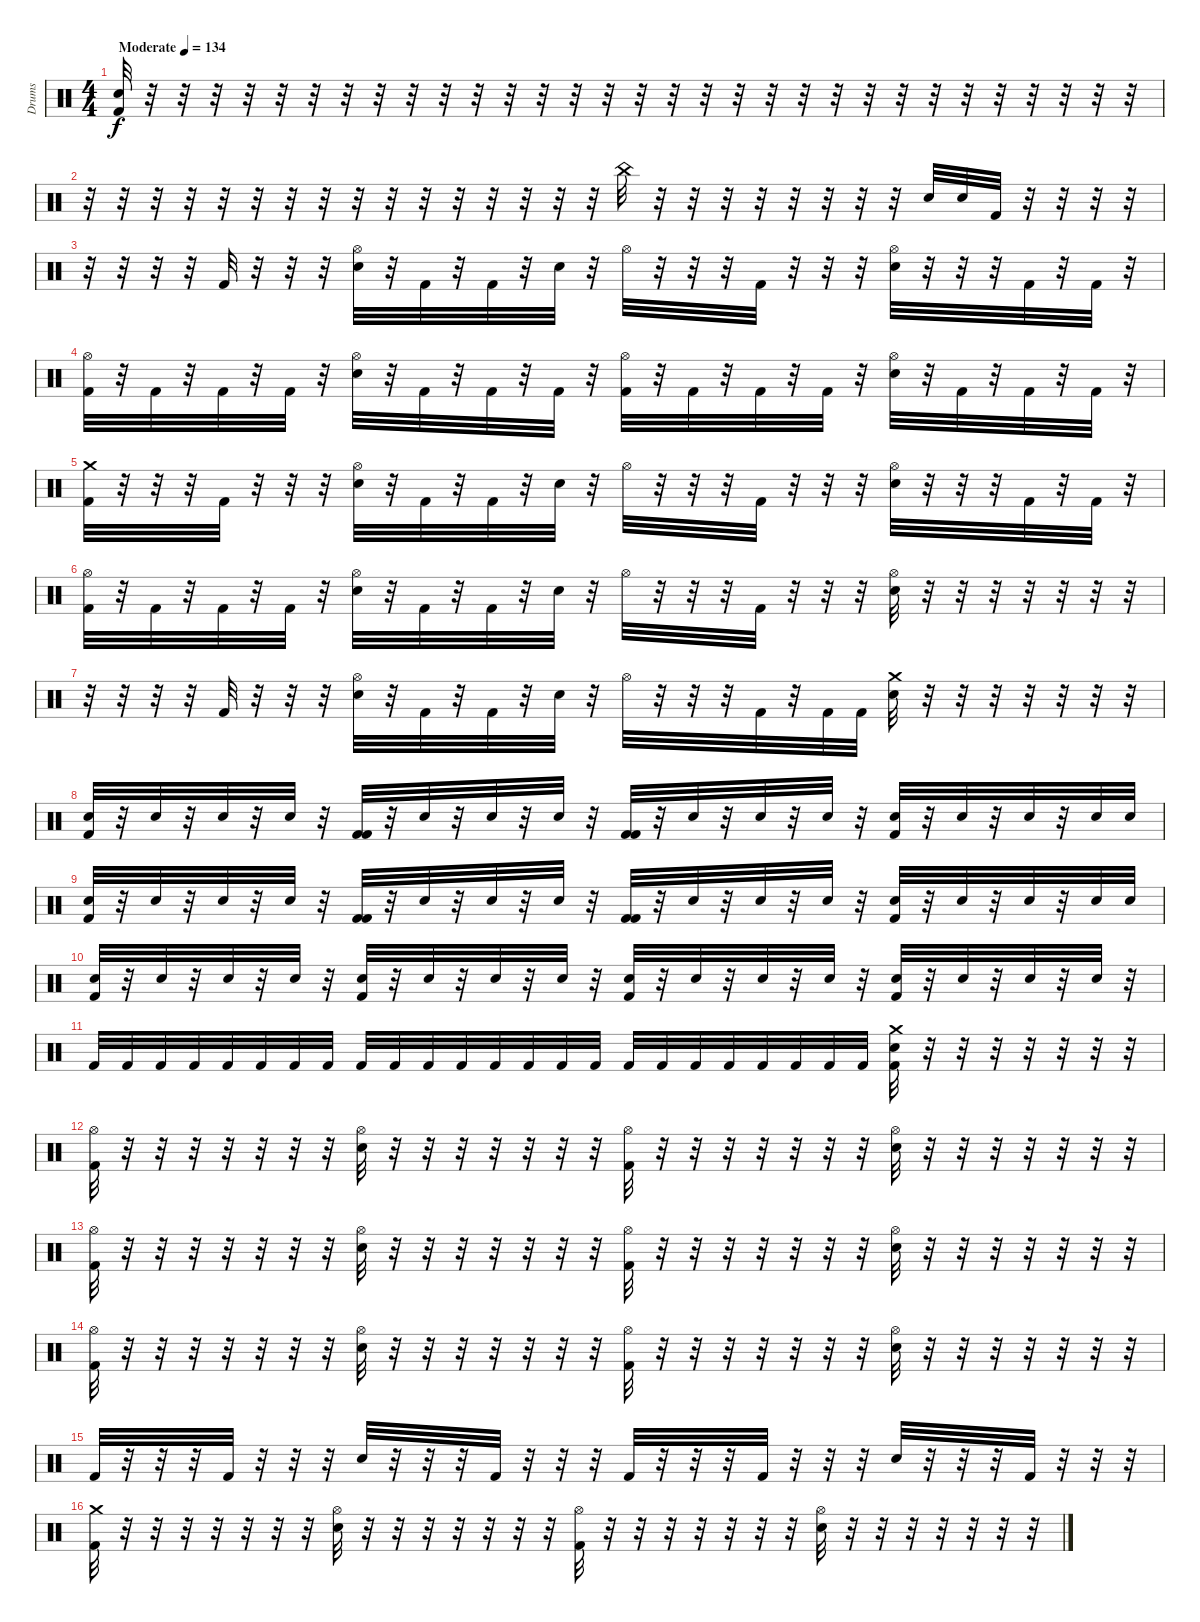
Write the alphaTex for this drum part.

\track ("Drums" "Drums") {instrument percussion}
\staff {score}
\articulation defaults
\ts (4 4)
\tempo (134 "Moderate")
\clef neutral
\ks c
("Kick (hit) 2" "Electric Snare (hit)").32{dy f} r.32 r.32 r.32 r.32 r.32 r.32 r.32 r.32 r.32 r.32 r.32 r.32 r.32 r.32 r.32 r.32 r.32 r.32 r.32 r.32 r.32 r.32 r.32 r.32 r.32 r.32 r.32 r.32 r.32 r.32 r.32 |
r.32 r.32 r.32 r.32 r.32 r.32 r.32 r.32 r.32 r.32 r.32 r.32 r.32 r.32 r.32 r.32 "China (hit)".32 r.32 r.32 r.32 r.32 r.32 r.32 r.32 r.32 "Electric Snare (hit)".32 "Electric Snare (hit)".32 "Kick (hit) 2".32 r.32 r.32 r.32 r.32 |
r.32 r.32 r.32 r.32 "Kick (hit) 2".32 r.32 r.32 r.32 ("Electric Snare (hit)" "Hi-Hat (open)").32 r.32 "Kick (hit) 2".32 r.32 "Kick (hit) 2".32 r.32 "Electric Snare (hit)".32 r.32 "Hi-Hat (open)".32 r.32 r.32 r.32 "Kick (hit) 2".32 r.32 r.32 r.32 ("Electric Snare (hit)" "Hi-Hat (open)").32 r.32 r.32 r.32 "Kick (hit) 2".32 r.32 "Kick (hit) 2".32 r.32 |
("Kick (hit) 2" "Hi-Hat (open)").32 r.32 "Kick (hit) 2".32 r.32 "Kick (hit) 2".32 r.32 "Kick (hit) 2".32 r.32 ("Electric Snare (hit)" "Hi-Hat (open)").32 r.32 "Kick (hit) 2".32 r.32 "Kick (hit) 2".32 r.32 "Kick (hit) 2".32 r.32 ("Kick (hit) 2" "Hi-Hat (open)").32 r.32 "Kick (hit) 2".32 r.32 "Kick (hit) 2".32 r.32 "Kick (hit) 2".32 r.32 ("Electric Snare (hit)" "Hi-Hat (open)").32 r.32 "Kick (hit) 2".32 r.32 "Kick (hit) 2".32 r.32 "Kick (hit) 2".32 r.32 |
("Kick (hit) 2" "Crash medium (hit)").32 r.32 r.32 r.32 "Kick (hit) 2".32 r.32 r.32 r.32 ("Electric Snare (hit)" "Hi-Hat (open)").32 r.32 "Kick (hit) 2".32 r.32 "Kick (hit) 2".32 r.32 "Electric Snare (hit)".32 r.32 "Hi-Hat (open)".32 r.32 r.32 r.32 "Kick (hit) 2".32 r.32 r.32 r.32 ("Electric Snare (hit)" "Hi-Hat (open)").32 r.32 r.32 r.32 "Kick (hit) 2".32 r.32 "Kick (hit) 2".32 r.32 |
("Kick (hit) 2" "Hi-Hat (open)").32 r.32 "Kick (hit) 2".32 r.32 "Kick (hit) 2".32 r.32 "Kick (hit) 2".32 r.32 ("Electric Snare (hit)" "Hi-Hat (open)").32 r.32 "Kick (hit) 2".32 r.32 "Kick (hit) 2".32 r.32 "Electric Snare (hit)".32 r.32 "Hi-Hat (open)".32 r.32 r.32 r.32 "Kick (hit) 2".32 r.32 r.32 r.32 ("Electric Snare (hit)" "Hi-Hat (open)").32 r.32 r.32 r.32 r.32 r.32 r.32 r.32 |
r.32 r.32 r.32 r.32 "Kick (hit) 2".32 r.32 r.32 r.32 ("Electric Snare (hit)" "Hi-Hat (open)").32 r.32 "Kick (hit) 2".32 r.32 "Kick (hit) 2".32 r.32 "Electric Snare (hit)".32 r.32 "Hi-Hat (open)".32 r.32 r.32 r.32 "Kick (hit) 2".32 r.32 "Kick (hit) 2".32 "Kick (hit) 2".32 ("Electric Snare (hit)" "Crash medium (hit)").32 r.32 r.32 r.32 r.32 r.32 r.32 r.32 |
("Snare (hit) 2" "Kick (hit) 2").32 r.32 "Snare (hit) 2".32 r.32 "Snare (hit) 2".32 r.32 "Snare (hit) 2".32 r.32 ("Kick (hit) 2" "Kick (hit) 2").32 r.32 "Snare (hit) 2".32 r.32 "Snare (hit) 2".32 r.32 "Snare (hit) 2".32 r.32 ("Kick (hit) 2" "Kick (hit) 2").32 r.32 "Snare (hit) 2".32 r.32 "Snare (hit) 2".32 r.32 "Snare (hit) 2".32 r.32 ("Snare (hit) 2" "Kick (hit) 2").32 r.32 "Snare (hit) 2".32 r.32 "Snare (hit) 2".32 r.32 "Snare (hit) 2".32 "Snare (hit) 2".32 |
("Snare (hit) 2" "Kick (hit) 2").32 r.32 "Snare (hit) 2".32 r.32 "Snare (hit) 2".32 r.32 "Snare (hit) 2".32 r.32 ("Kick (hit) 2" "Kick (hit) 2").32 r.32 "Snare (hit) 2".32 r.32 "Snare (hit) 2".32 r.32 "Snare (hit) 2".32 r.32 ("Kick (hit) 2" "Kick (hit) 2").32 r.32 "Snare (hit) 2".32 r.32 "Snare (hit) 2".32 r.32 "Snare (hit) 2".32 r.32 ("Snare (hit) 2" "Kick (hit) 2").32 r.32 "Snare (hit) 2".32 r.32 "Snare (hit) 2".32 r.32 "Snare (hit) 2".32 "Snare (hit) 2".32 |
("Electric Snare (hit)" "Kick (hit) 2").32 r.32 "Electric Snare (hit)".32 r.32 "Electric Snare (hit)".32 r.32 "Electric Snare (hit)".32 r.32 ("Electric Snare (hit)" "Kick (hit) 2").32 r.32 "Electric Snare (hit)".32 r.32 "Electric Snare (hit)".32 r.32 "Electric Snare (hit)".32 r.32 ("Electric Snare (hit)" "Kick (hit) 2").32 r.32 "Electric Snare (hit)".32 r.32 "Electric Snare (hit)".32 r.32 "Electric Snare (hit)".32 r.32 ("Electric Snare (hit)" "Kick (hit) 2").32 r.32 "Electric Snare (hit)".32 r.32 "Electric Snare (hit)".32 r.32 "Electric Snare (hit)".32 r.32 |
"Kick (hit) 2".32 "Kick (hit) 2".32 "Kick (hit) 2".32 "Kick (hit) 2".32 "Kick (hit) 2".32 "Kick (hit) 2".32 "Kick (hit) 2".32 "Kick (hit) 2".32 "Kick (hit) 2".32 "Kick (hit) 2".32 "Kick (hit) 2".32 "Kick (hit) 2".32 "Kick (hit) 2".32 "Kick (hit) 2".32 "Kick (hit) 2".32 "Kick (hit) 2".32 "Kick (hit) 2".32 "Kick (hit) 2".32 "Kick (hit) 2".32 "Kick (hit) 2".32 "Kick (hit) 2".32 "Kick (hit) 2".32 "Kick (hit) 2".32 "Kick (hit) 2".32 ("Electric Snare (hit)" "Kick (hit) 2" "Crash medium (hit)").32 r.32 r.32 r.32 r.32 r.32 r.32 r.32 |
("Kick (hit) 2" "Hi-Hat (open)").32 r.32 r.32 r.32 r.32 r.32 r.32 r.32 ("Electric Snare (hit)" "Hi-Hat (open)").32 r.32 r.32 r.32 r.32 r.32 r.32 r.32 ("Kick (hit) 2" "Hi-Hat (open)").32 r.32 r.32 r.32 r.32 r.32 r.32 r.32 ("Electric Snare (hit)" "Hi-Hat (open)").32 r.32 r.32 r.32 r.32 r.32 r.32 r.32 |
("Kick (hit) 2" "Hi-Hat (open)").32 r.32 r.32 r.32 r.32 r.32 r.32 r.32 ("Electric Snare (hit)" "Hi-Hat (open)").32 r.32 r.32 r.32 r.32 r.32 r.32 r.32 ("Kick (hit) 2" "Hi-Hat (open)").32 r.32 r.32 r.32 r.32 r.32 r.32 r.32 ("Electric Snare (hit)" "Hi-Hat (open)").32 r.32 r.32 r.32 r.32 r.32 r.32 r.32 |
("Kick (hit) 2" "Hi-Hat (open)").32 r.32 r.32 r.32 r.32 r.32 r.32 r.32 ("Electric Snare (hit)" "Hi-Hat (open)").32 r.32 r.32 r.32 r.32 r.32 r.32 r.32 ("Kick (hit) 2" "Hi-Hat (open)").32 r.32 r.32 r.32 r.32 r.32 r.32 r.32 ("Electric Snare (hit)" "Hi-Hat (open)").32 r.32 r.32 r.32 r.32 r.32 r.32 r.32 |
"Kick (hit) 2".32 r.32 r.32 r.32 "Kick (hit) 2".32 r.32 r.32 r.32 "Electric Snare (hit)".32 r.32 r.32 r.32 "Kick (hit) 2".32 r.32 r.32 r.32 "Kick (hit) 2".32 r.32 r.32 r.32 "Kick (hit) 2".32 r.32 r.32 r.32 "Electric Snare (hit)".32 r.32 r.32 r.32 "Kick (hit) 2".32 r.32 r.32 r.32 |
("Kick (hit) 2" "Crash medium (hit)").32 r.32 r.32 r.32 r.32 r.32 r.32 r.32 ("Electric Snare (hit)" "Hi-Hat (open)").32 r.32 r.32 r.32 r.32 r.32 r.32 r.32 ("Kick (hit) 2" "Hi-Hat (open)").32 r.32 r.32 r.32 r.32 r.32 r.32 r.32 ("Electric Snare (hit)" "Hi-Hat (open)").32 r.32 r.32 r.32 r.32 r.32 r.32 r.32
